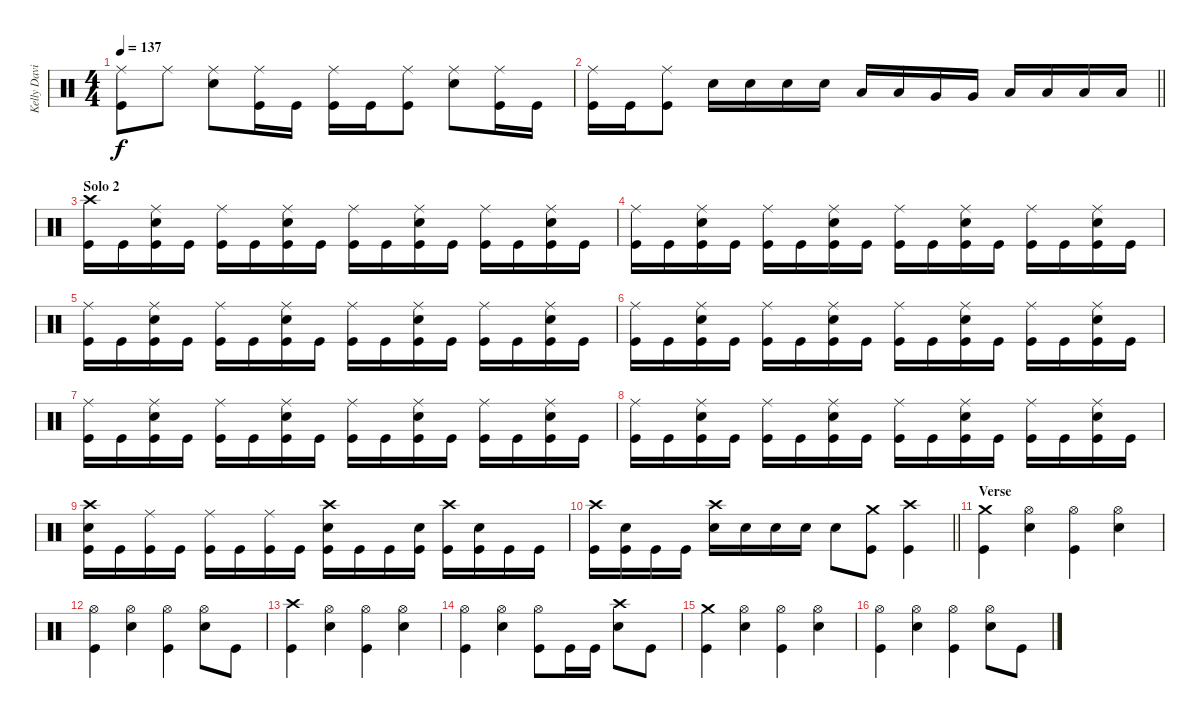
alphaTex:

\track ("Kelly David Smith" "Kelly Davi") {instrument percussion}
\staff {score}
\articulation defaults
\ts (4 4)
\tempo 137
\clef neutral
\ks c
("Ride (middle)" "Kick (hit)").8{dy f} "Ride (middle)".8 ("Ride (middle)" "Electric Snare (hit)").8 ("Ride (middle)" "Kick (hit)").16 "Kick (hit)".16 ("Ride (middle)" "Kick (hit)").16 "Kick (hit)".16 ("Ride (middle)" "Kick (hit)").8 ("Ride (middle)" "Electric Snare (hit)").8 ("Ride (middle)" "Kick (hit)").16 "Kick (hit)".16 |
\barLineRight lightlight
("Ride (middle)" "Kick (hit)").16 "Kick (hit)".16 ("Ride (middle)" "Kick (hit)").8 "Electric Snare (hit)".16 "Electric Snare (hit)".16 "Electric Snare (hit)".16 "Electric Snare (hit)".16 "Low Tom (hit)".16 "Low Tom (hit)".16 "Very Low Tom (hit)".16 "Very Low Tom (hit)".16 "Low Floor Tom (hit)".16 "Low Floor Tom (hit)".16 "Low Floor Tom (hit)".16 "Low Floor Tom (hit)".16 |
\section ("" "Solo 2")
("Crash high (hit)" "Kick (hit)").16 "Kick (hit)".16 ("Ride (middle)" "Electric Snare (hit)" "Kick (hit)").16 "Kick (hit)".16 ("Ride (middle)" "Kick (hit)").16 "Kick (hit)".16 ("Ride (middle)" "Electric Snare (hit)" "Kick (hit)").16 "Kick (hit)".16 ("Ride (middle)" "Kick (hit)").16 "Kick (hit)".16 ("Ride (middle)" "Electric Snare (hit)" "Kick (hit)").16 "Kick (hit)".16 ("Ride (middle)" "Kick (hit)").16 "Kick (hit)".16 ("Ride (middle)" "Electric Snare (hit)" "Kick (hit)").16 "Kick (hit)".16 |
("Ride (middle)" "Kick (hit)").16 "Kick (hit)".16 ("Ride (middle)" "Electric Snare (hit)" "Kick (hit)").16 "Kick (hit)".16 ("Ride (middle)" "Kick (hit)").16 "Kick (hit)".16 ("Ride (middle)" "Electric Snare (hit)" "Kick (hit)").16 "Kick (hit)".16 ("Ride (middle)" "Kick (hit)").16 "Kick (hit)".16 ("Ride (middle)" "Electric Snare (hit)" "Kick (hit)").16 "Kick (hit)".16 ("Ride (middle)" "Kick (hit)").16 "Kick (hit)".16 ("Ride (middle)" "Electric Snare (hit)" "Kick (hit)").16 "Kick (hit)".16 |
("Ride (middle)" "Kick (hit)").16 "Kick (hit)".16 ("Ride (middle)" "Electric Snare (hit)" "Kick (hit)").16 "Kick (hit)".16 ("Ride (middle)" "Kick (hit)").16 "Kick (hit)".16 ("Ride (middle)" "Electric Snare (hit)" "Kick (hit)").16 "Kick (hit)".16 ("Ride (middle)" "Kick (hit)").16 "Kick (hit)".16 ("Ride (middle)" "Electric Snare (hit)" "Kick (hit)").16 "Kick (hit)".16 ("Ride (middle)" "Kick (hit)").16 "Kick (hit)".16 ("Ride (middle)" "Electric Snare (hit)" "Kick (hit)").16 "Kick (hit)".16 |
("Ride (middle)" "Kick (hit)").16 "Kick (hit)".16 ("Ride (middle)" "Electric Snare (hit)" "Kick (hit)").16 "Kick (hit)".16 ("Ride (middle)" "Kick (hit)").16 "Kick (hit)".16 ("Ride (middle)" "Electric Snare (hit)" "Kick (hit)").16 "Kick (hit)".16 ("Ride (middle)" "Kick (hit)").16 "Kick (hit)".16 ("Ride (middle)" "Electric Snare (hit)" "Kick (hit)").16 "Kick (hit)".16 ("Ride (middle)" "Kick (hit)").16 "Kick (hit)".16 ("Ride (middle)" "Electric Snare (hit)" "Kick (hit)").16 "Kick (hit)".16 |
("Ride (middle)" "Kick (hit)").16 "Kick (hit)".16 ("Ride (middle)" "Electric Snare (hit)" "Kick (hit)").16 "Kick (hit)".16 ("Ride (middle)" "Kick (hit)").16 "Kick (hit)".16 ("Ride (middle)" "Electric Snare (hit)" "Kick (hit)").16 "Kick (hit)".16 ("Ride (middle)" "Kick (hit)").16 "Kick (hit)".16 ("Ride (middle)" "Electric Snare (hit)" "Kick (hit)").16 "Kick (hit)".16 ("Ride (middle)" "Kick (hit)").16 "Kick (hit)".16 ("Ride (middle)" "Electric Snare (hit)" "Kick (hit)").16 "Kick (hit)".16 |
("Ride (middle)" "Kick (hit)").16 "Kick (hit)".16 ("Ride (middle)" "Electric Snare (hit)" "Kick (hit)").16 "Kick (hit)".16 ("Ride (middle)" "Kick (hit)").16 "Kick (hit)".16 ("Ride (middle)" "Electric Snare (hit)" "Kick (hit)").16 "Kick (hit)".16 ("Ride (middle)" "Kick (hit)").16 "Kick (hit)".16 ("Ride (middle)" "Electric Snare (hit)" "Kick (hit)").16 "Kick (hit)".16 ("Ride (middle)" "Kick (hit)").16 "Kick (hit)".16 ("Ride (middle)" "Electric Snare (hit)" "Kick (hit)").16 "Kick (hit)".16 |
("Crash high (hit)" "Electric Snare (hit)" "Kick (hit)").16 "Kick (hit)".16 ("Ride (middle)" "Kick (hit)").16 "Kick (hit)".16 ("Ride (middle)" "Kick (hit)").16 "Kick (hit)".16 ("Ride (middle)" "Kick (hit)").16 "Kick (hit)".16 ("Crash high (hit)" "Electric Snare (hit)" "Kick (hit)").16 "Kick (hit)".16 "Kick (hit)".16 ("Electric Snare (hit)" "Kick (hit)").16 ("Crash high (hit)" "Kick (hit)").16 ("Electric Snare (hit)" "Kick (hit)").16 "Kick (hit)".16 "Kick (hit)".16 |
\barLineRight lightlight
("Crash high (hit)" "Kick (hit)").16 ("Electric Snare (hit)" "Kick (hit)").16 "Kick (hit)".16 "Kick (hit)".16 ("Crash high (hit)" "Electric Snare (hit)").16 "Electric Snare (hit)".16 "Electric Snare (hit)".16 "Electric Snare (hit)".16 "Electric Snare (hit)".8 ("Crash medium (hit)" "Kick (hit)").8 ("Crash high (hit)" "Kick (hit)").4 |
\section ("" "Verse")
("Crash medium (hit)" "Kick (hit)").4 ("Hi-Hat (open)" "Electric Snare (hit)").4 ("Hi-Hat (open)" "Kick (hit)").4 ("Hi-Hat (open)" "Electric Snare (hit)").4 |
("Hi-Hat (open)" "Kick (hit)").4 ("Hi-Hat (open)" "Electric Snare (hit)").4 ("Hi-Hat (open)" "Kick (hit)").4 ("Hi-Hat (open)" "Electric Snare (hit)").8 "Kick (hit)".8 |
("Crash high (hit)" "Kick (hit)").4 ("Hi-Hat (open)" "Electric Snare (hit)").4 ("Hi-Hat (open)" "Kick (hit)").4 ("Hi-Hat (open)" "Electric Snare (hit)").4 |
("Hi-Hat (open)" "Kick (hit)").4 ("Hi-Hat (open)" "Electric Snare (hit)").4 ("Hi-Hat (open)" "Kick (hit)").8 "Kick (hit)".16 "Kick (hit)".16 ("Crash high (hit)" "Electric Snare (hit)").8 "Kick (hit)".8 |
("Crash medium (hit)" "Kick (hit)").4 ("Hi-Hat (open)" "Electric Snare (hit)").4 ("Hi-Hat (open)" "Kick (hit)").4 ("Hi-Hat (open)" "Electric Snare (hit)").4 |
("Hi-Hat (open)" "Kick (hit)").4 ("Hi-Hat (open)" "Electric Snare (hit)").4 ("Hi-Hat (open)" "Kick (hit)").4 ("Hi-Hat (open)" "Electric Snare (hit)").8 "Kick (hit)".8
